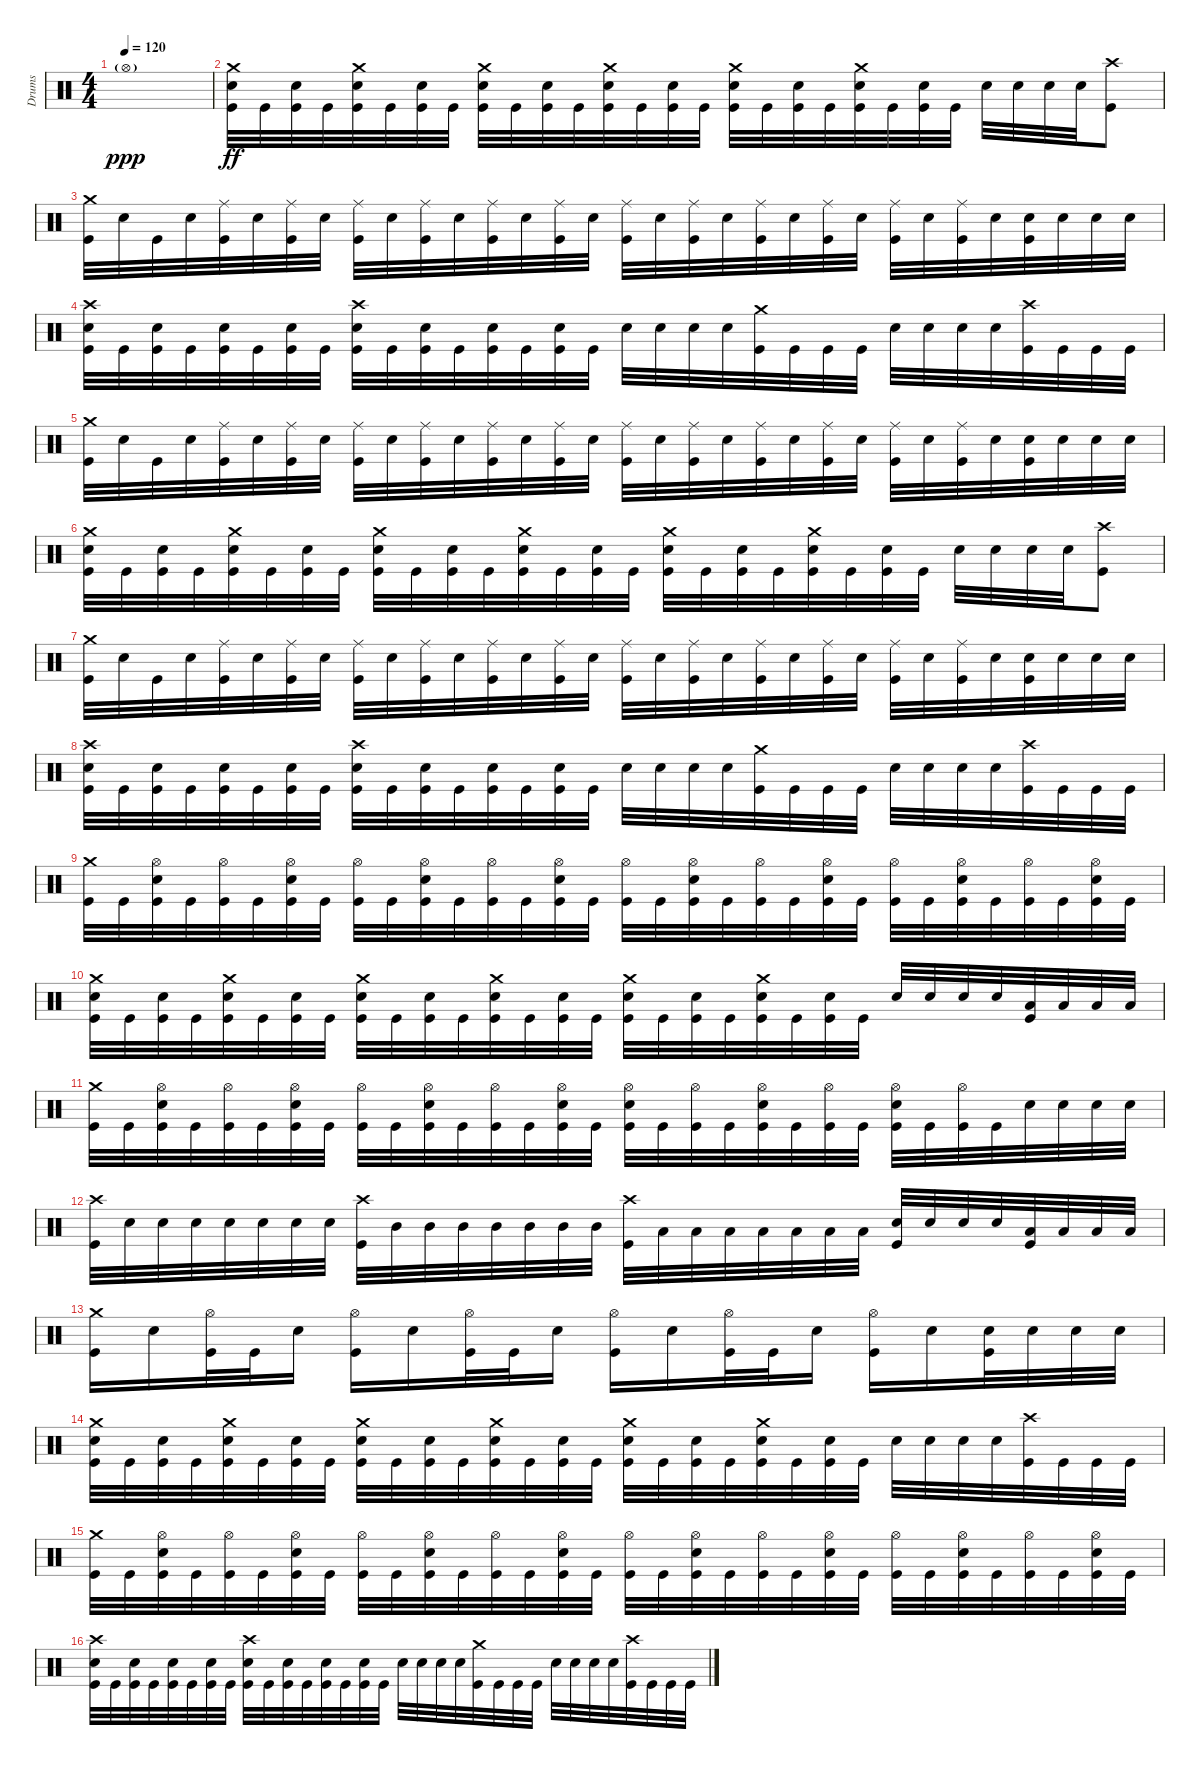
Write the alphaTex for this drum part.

\track ("Drums" "Drums") {instrument percussion}
\staff {score}
\articulation defaults
\ts (4 4)
\tempo 120
\clef neutral
\ks c "Hi-Hat (open)"{g}.1{dy ppp}
|
("Kick (hit)" "Snare (hit) 2" "Crash medium (hit)").32{dy ff} "Kick (hit)".32 ("Kick (hit)" "Snare (hit) 2").32 "Kick (hit)".32 ("Kick (hit)" "Snare (hit) 2" "Crash medium (hit)").32 "Kick (hit)".32 ("Kick (hit)" "Snare (hit) 2").32 "Kick (hit)".32 ("Kick (hit)" "Snare (hit) 2" "Crash medium (hit)").32 "Kick (hit)".32 ("Kick (hit)" "Snare (hit) 2").32 "Kick (hit)".32 ("Kick (hit)" "Snare (hit) 2" "Crash medium (hit)").32 "Kick (hit)".32 ("Kick (hit)" "Snare (hit) 2").32 "Kick (hit)".32 ("Kick (hit)" "Snare (hit) 2" "Crash medium (hit)").32 "Kick (hit)".32 ("Kick (hit)" "Snare (hit) 2").32 "Kick (hit)".32 ("Kick (hit)" "Snare (hit) 2" "Crash medium (hit)").32 "Kick (hit)".32 ("Kick (hit)" "Snare (hit) 2").32 "Kick (hit)".32 "Snare (hit) 2".32 "Snare (hit) 2".32 "Snare (hit) 2".32 "Snare (hit) 2".32 ("Kick (hit)" "Crash high (hit)").8 |
("Kick (hit)" "Crash medium (hit)").32 "Snare (hit) 2".32 "Kick (hit)".32 "Snare (hit) 2".32 ("Kick (hit)" "Ride (middle)").32 "Snare (hit) 2".32 ("Kick (hit)" "Ride (middle)").32 "Snare (hit) 2".32 ("Kick (hit)" "Ride (middle)").32 "Snare (hit) 2".32 ("Kick (hit)" "Ride (middle)").32 "Snare (hit) 2".32 ("Kick (hit)" "Ride (middle)").32 "Snare (hit) 2".32 ("Kick (hit)" "Ride (middle)").32 "Snare (hit) 2".32 ("Kick (hit)" "Ride (middle)").32 "Snare (hit) 2".32 ("Kick (hit)" "Ride (middle)").32 "Snare (hit) 2".32 ("Kick (hit)" "Ride (middle)").32 "Snare (hit) 2".32 ("Kick (hit)" "Ride (middle)").32 "Snare (hit) 2".32 ("Kick (hit)" "Ride (middle)").32 "Snare (hit) 2".32 ("Kick (hit)" "Ride (middle)").32 "Snare (hit) 2".32 ("Snare (hit) 2" "Kick (hit)").32 "Snare (hit) 2".32 "Snare (hit) 2".32 "Snare (hit) 2".32 |
("Kick (hit)" "Crash high (hit)" "Snare (hit) 2").32 "Kick (hit)".32 ("Kick (hit)" "Snare (hit) 2").32 "Kick (hit)".32 ("Kick (hit)" "Snare (hit) 2").32 "Kick (hit)".32 ("Kick (hit)" "Snare (hit) 2").32 "Kick (hit)".32 ("Kick (hit)" "Snare (hit) 2" "Crash high (hit)").32 "Kick (hit)".32 ("Kick (hit)" "Snare (hit) 2").32 "Kick (hit)".32 ("Kick (hit)" "Snare (hit) 2").32 "Kick (hit)".32 ("Kick (hit)" "Snare (hit) 2").32 "Kick (hit)".32 "Snare (hit) 2".32 "Snare (hit) 2".32 "Snare (hit) 2".32 "Snare (hit) 2".32 ("Kick (hit)" "Crash medium (hit)").32 "Kick (hit)".32 "Kick (hit)".32 "Kick (hit)".32 "Snare (hit) 2".32 "Snare (hit) 2".32 "Snare (hit) 2".32 "Snare (hit) 2".32 ("Kick (hit)" "Crash high (hit)").32 "Kick (hit)".32 "Kick (hit)".32 "Kick (hit)".32 |
("Kick (hit)" "Crash medium (hit)").32 "Snare (hit) 2".32 "Kick (hit)".32 "Snare (hit) 2".32 ("Kick (hit)" "Ride (middle)").32 "Snare (hit) 2".32 ("Kick (hit)" "Ride (middle)").32 "Snare (hit) 2".32 ("Kick (hit)" "Ride (middle)").32 "Snare (hit) 2".32 ("Kick (hit)" "Ride (middle)").32 "Snare (hit) 2".32 ("Kick (hit)" "Ride (middle)").32 "Snare (hit) 2".32 ("Kick (hit)" "Ride (middle)").32 "Snare (hit) 2".32 ("Kick (hit)" "Ride (middle)").32 "Snare (hit) 2".32 ("Kick (hit)" "Ride (middle)").32 "Snare (hit) 2".32 ("Kick (hit)" "Ride (middle)").32 "Snare (hit) 2".32 ("Kick (hit)" "Ride (middle)").32 "Snare (hit) 2".32 ("Kick (hit)" "Ride (middle)").32 "Snare (hit) 2".32 ("Kick (hit)" "Ride (middle)").32 "Snare (hit) 2".32 ("Snare (hit) 2" "Kick (hit)").32 "Snare (hit) 2".32 "Snare (hit) 2".32 "Snare (hit) 2".32 |
("Kick (hit)" "Snare (hit) 2" "Crash medium (hit)").32 "Kick (hit)".32 ("Kick (hit)" "Snare (hit) 2").32 "Kick (hit)".32 ("Kick (hit)" "Snare (hit) 2" "Crash medium (hit)").32 "Kick (hit)".32 ("Kick (hit)" "Snare (hit) 2").32 "Kick (hit)".32 ("Kick (hit)" "Snare (hit) 2" "Crash medium (hit)").32 "Kick (hit)".32 ("Kick (hit)" "Snare (hit) 2").32 "Kick (hit)".32 ("Kick (hit)" "Snare (hit) 2" "Crash medium (hit)").32 "Kick (hit)".32 ("Kick (hit)" "Snare (hit) 2").32 "Kick (hit)".32 ("Kick (hit)" "Snare (hit) 2" "Crash medium (hit)").32 "Kick (hit)".32 ("Kick (hit)" "Snare (hit) 2").32 "Kick (hit)".32 ("Kick (hit)" "Snare (hit) 2" "Crash medium (hit)").32 "Kick (hit)".32 ("Kick (hit)" "Snare (hit) 2").32 "Kick (hit)".32 "Snare (hit) 2".32 "Snare (hit) 2".32 "Snare (hit) 2".32 "Snare (hit) 2".32 ("Kick (hit)" "Crash high (hit)").8 |
("Kick (hit)" "Crash medium (hit)").32 "Snare (hit) 2".32 "Kick (hit)".32 "Snare (hit) 2".32 ("Kick (hit)" "Ride (middle)").32 "Snare (hit) 2".32 ("Kick (hit)" "Ride (middle)").32 "Snare (hit) 2".32 ("Kick (hit)" "Ride (middle)").32 "Snare (hit) 2".32 ("Kick (hit)" "Ride (middle)").32 "Snare (hit) 2".32 ("Kick (hit)" "Ride (middle)").32 "Snare (hit) 2".32 ("Kick (hit)" "Ride (middle)").32 "Snare (hit) 2".32 ("Kick (hit)" "Ride (middle)").32 "Snare (hit) 2".32 ("Kick (hit)" "Ride (middle)").32 "Snare (hit) 2".32 ("Kick (hit)" "Ride (middle)").32 "Snare (hit) 2".32 ("Kick (hit)" "Ride (middle)").32 "Snare (hit) 2".32 ("Kick (hit)" "Ride (middle)").32 "Snare (hit) 2".32 ("Kick (hit)" "Ride (middle)").32 "Snare (hit) 2".32 ("Snare (hit) 2" "Kick (hit)").32 "Snare (hit) 2".32 "Snare (hit) 2".32 "Snare (hit) 2".32 |
("Kick (hit)" "Crash high (hit)" "Snare (hit) 2").32 "Kick (hit)".32 ("Kick (hit)" "Snare (hit) 2").32 "Kick (hit)".32 ("Kick (hit)" "Snare (hit) 2").32 "Kick (hit)".32 ("Kick (hit)" "Snare (hit) 2").32 "Kick (hit)".32 ("Kick (hit)" "Snare (hit) 2" "Crash high (hit)").32 "Kick (hit)".32 ("Kick (hit)" "Snare (hit) 2").32 "Kick (hit)".32 ("Kick (hit)" "Snare (hit) 2").32 "Kick (hit)".32 ("Kick (hit)" "Snare (hit) 2").32 "Kick (hit)".32 "Snare (hit) 2".32 "Snare (hit) 2".32 "Snare (hit) 2".32 "Snare (hit) 2".32 ("Kick (hit)" "Crash medium (hit)").32 "Kick (hit)".32 "Kick (hit)".32 "Kick (hit)".32 "Snare (hit) 2".32 "Snare (hit) 2".32 "Snare (hit) 2".32 "Snare (hit) 2".32 ("Kick (hit)" "Crash high (hit)").32 "Kick (hit)".32 "Kick (hit)".32 "Kick (hit)".32 |
("Kick (hit)" "Crash medium (hit)").32 "Kick (hit)".32 ("Kick (hit)" "Snare (hit) 2" "Hi-Hat (open)").32 "Kick (hit)".32 ("Kick (hit)" "Hi-Hat (open)").32 "Kick (hit)".32 ("Kick (hit)" "Snare (hit) 2" "Hi-Hat (open)").32 "Kick (hit)".32 ("Kick (hit)" "Hi-Hat (open)").32 "Kick (hit)".32 ("Kick (hit)" "Snare (hit) 2" "Hi-Hat (open)").32 "Kick (hit)".32 ("Kick (hit)" "Hi-Hat (open)").32 "Kick (hit)".32 ("Kick (hit)" "Snare (hit) 2" "Hi-Hat (open)").32 "Kick (hit)".32 ("Kick (hit)" "Hi-Hat (open)").32 "Kick (hit)".32 ("Kick (hit)" "Snare (hit) 2" "Hi-Hat (open)").32 "Kick (hit)".32 ("Kick (hit)" "Hi-Hat (open)").32 "Kick (hit)".32 ("Kick (hit)" "Snare (hit) 2" "Hi-Hat (open)").32 "Kick (hit)".32 ("Kick (hit)" "Hi-Hat (open)").32 "Kick (hit)".32 ("Kick (hit)" "Snare (hit) 2" "Hi-Hat (open)").32 "Kick (hit)".32 ("Kick (hit)" "Hi-Hat (open)").32 "Kick (hit)".32 ("Kick (hit)" "Snare (hit) 2" "Hi-Hat (open)").32 "Kick (hit)".32 |
("Kick (hit)" "Snare (hit) 2" "Crash medium (hit)").32 "Kick (hit)".32 ("Kick (hit)" "Snare (hit) 2").32 "Kick (hit)".32 ("Kick (hit)" "Snare (hit) 2" "Crash medium (hit)").32 "Kick (hit)".32 ("Kick (hit)" "Snare (hit) 2").32 "Kick (hit)".32 ("Kick (hit)" "Snare (hit) 2" "Crash medium (hit)").32 "Kick (hit)".32 ("Kick (hit)" "Snare (hit) 2").32 "Kick (hit)".32 ("Kick (hit)" "Snare (hit) 2" "Crash medium (hit)").32 "Kick (hit)".32 ("Kick (hit)" "Snare (hit) 2").32 "Kick (hit)".32 ("Kick (hit)" "Snare (hit) 2" "Crash medium (hit)").32 "Kick (hit)".32 ("Kick (hit)" "Snare (hit) 2").32 "Kick (hit)".32 ("Kick (hit)" "Snare (hit) 2" "Crash medium (hit)").32 "Kick (hit)".32 ("Kick (hit)" "Snare (hit) 2").32 "Kick (hit)".32 "Snare (hit) 2".32 "Snare (hit) 2".32 "Snare (hit) 2".32 "Snare (hit) 2".32 ("Low Tom (hit)" "Kick (hit)").32 "Low Tom (hit)".32 "Low Tom (hit)".32 "Low Tom (hit)".32 |
("Kick (hit)" "Crash medium (hit)").32 "Kick (hit)".32 ("Kick (hit)" "Snare (hit) 2" "Hi-Hat (open)").32 "Kick (hit)".32 ("Kick (hit)" "Hi-Hat (open)").32 "Kick (hit)".32 ("Kick (hit)" "Snare (hit) 2" "Hi-Hat (open)").32 "Kick (hit)".32 ("Kick (hit)" "Hi-Hat (open)").32 "Kick (hit)".32 ("Kick (hit)" "Snare (hit) 2" "Hi-Hat (open)").32 "Kick (hit)".32 ("Kick (hit)" "Hi-Hat (open)").32 "Kick (hit)".32 ("Kick (hit)" "Snare (hit) 2" "Hi-Hat (open)").32 "Kick (hit)".32 ("Kick (hit)" "Hi-Hat (open)" "Snare (hit) 2").32 "Kick (hit)".32 ("Kick (hit)" "Hi-Hat (open)").32 "Kick (hit)".32 ("Kick (hit)" "Hi-Hat (open)" "Snare (hit) 2").32 "Kick (hit)".32 ("Kick (hit)" "Hi-Hat (open)").32 "Kick (hit)".32 ("Kick (hit)" "Hi-Hat (open)" "Snare (hit) 2").32 "Kick (hit)".32 ("Kick (hit)" "Hi-Hat (open)").32 "Kick (hit)".32 "Snare (hit) 2".32 "Snare (hit) 2".32 "Snare (hit) 2".32 "Snare (hit) 2".32 |
("Kick (hit)" "Crash high (hit)").32 "Snare (hit) 2".32 "Snare (hit) 2".32 "Snare (hit) 2".32 "Snare (hit) 2".32 "Snare (hit) 2".32 "Snare (hit) 2".32 "Snare (hit) 2".32 ("Kick (hit)" "Crash high (hit)").32 "Mid Tom (hit)".32 "Mid Tom (hit)".32 "Mid Tom (hit)".32 "Mid Tom (hit)".32 "Mid Tom (hit)".32 "Mid Tom (hit)".32 "Mid Tom (hit)".32 ("Kick (hit)" "Crash high (hit)").32 "Low Tom (hit)".32 "Low Tom (hit)".32 "Low Tom (hit)".32 "Low Tom (hit)".32 "Low Tom (hit)".32 "Low Tom (hit)".32 "Low Tom (hit)".32 ("Snare (hit) 2" "Kick (hit)").32 "Snare (hit) 2".32 "Snare (hit) 2".32 "Snare (hit) 2".32 ("Low Tom (hit)" "Kick (hit)").32 "Low Tom (hit)".32 "Low Tom (hit)".32 "Low Tom (hit)".32 |
("Kick (hit)" "Crash medium (hit)").16 "Snare (hit) 2".16 ("Kick (hit)" "Hi-Hat (open)").32 "Kick (hit)".32 "Snare (hit) 2".16 ("Kick (hit)" "Hi-Hat (open)").16 "Snare (hit) 2".16 ("Kick (hit)" "Hi-Hat (open)").32 "Kick (hit)".32 "Snare (hit) 2".16 ("Kick (hit)" "Hi-Hat (open)").16 "Snare (hit) 2".16 ("Kick (hit)" "Hi-Hat (open)").32 "Kick (hit)".32 "Snare (hit) 2".16 ("Kick (hit)" "Hi-Hat (open)").16 "Snare (hit) 2".16 ("Snare (hit) 2" "Kick (hit)").32 "Snare (hit) 2".32 "Snare (hit) 2".32 "Snare (hit) 2".32 |
("Kick (hit)" "Snare (hit) 2" "Crash medium (hit)").32 "Kick (hit)".32 ("Kick (hit)" "Snare (hit) 2").32 "Kick (hit)".32 ("Kick (hit)" "Snare (hit) 2" "Crash medium (hit)").32 "Kick (hit)".32 ("Kick (hit)" "Snare (hit) 2").32 "Kick (hit)".32 ("Kick (hit)" "Snare (hit) 2" "Crash medium (hit)").32 "Kick (hit)".32 ("Kick (hit)" "Snare (hit) 2").32 "Kick (hit)".32 ("Kick (hit)" "Snare (hit) 2" "Crash medium (hit)").32 "Kick (hit)".32 ("Kick (hit)" "Snare (hit) 2").32 "Kick (hit)".32 ("Kick (hit)" "Snare (hit) 2" "Crash medium (hit)").32 "Kick (hit)".32 ("Kick (hit)" "Snare (hit) 2").32 "Kick (hit)".32 ("Kick (hit)" "Snare (hit) 2" "Crash medium (hit)").32 "Kick (hit)".32 ("Kick (hit)" "Snare (hit) 2").32 "Kick (hit)".32 "Snare (hit) 2".32 "Snare (hit) 2".32 "Snare (hit) 2".32 "Snare (hit) 2".32 ("Crash high (hit)" "Kick (hit)").32 "Kick (hit)".32 "Kick (hit)".32 "Kick (hit)".32 |
("Kick (hit)" "Crash medium (hit)").32 "Kick (hit)".32 ("Kick (hit)" "Snare (hit) 2" "Hi-Hat (open)").32 "Kick (hit)".32 ("Kick (hit)" "Hi-Hat (open)").32 "Kick (hit)".32 ("Kick (hit)" "Snare (hit) 2" "Hi-Hat (open)").32 "Kick (hit)".32 ("Kick (hit)" "Hi-Hat (open)").32 "Kick (hit)".32 ("Kick (hit)" "Snare (hit) 2" "Hi-Hat (open)").32 "Kick (hit)".32 ("Kick (hit)" "Hi-Hat (open)").32 "Kick (hit)".32 ("Kick (hit)" "Snare (hit) 2" "Hi-Hat (open)").32 "Kick (hit)".32 ("Kick (hit)" "Hi-Hat (open)").32 "Kick (hit)".32 ("Kick (hit)" "Snare (hit) 2" "Hi-Hat (open)").32 "Kick (hit)".32 ("Kick (hit)" "Hi-Hat (open)").32 "Kick (hit)".32 ("Kick (hit)" "Snare (hit) 2" "Hi-Hat (open)").32 "Kick (hit)".32 ("Kick (hit)" "Hi-Hat (open)").32 "Kick (hit)".32 ("Kick (hit)" "Snare (hit) 2" "Hi-Hat (open)").32 "Kick (hit)".32 ("Kick (hit)" "Hi-Hat (open)").32 "Kick (hit)".32 ("Kick (hit)" "Snare (hit) 2" "Hi-Hat (open)").32 "Kick (hit)".32 |
("Kick (hit)" "Crash high (hit)" "Snare (hit) 2").32 "Kick (hit)".32 ("Kick (hit)" "Snare (hit) 2").32 "Kick (hit)".32 ("Kick (hit)" "Snare (hit) 2").32 "Kick (hit)".32 ("Kick (hit)" "Snare (hit) 2").32 "Kick (hit)".32 ("Kick (hit)" "Snare (hit) 2" "Crash high (hit)").32 "Kick (hit)".32 ("Kick (hit)" "Snare (hit) 2").32 "Kick (hit)".32 ("Kick (hit)" "Snare (hit) 2").32 "Kick (hit)".32 ("Kick (hit)" "Snare (hit) 2").32 "Kick (hit)".32 "Snare (hit) 2".32 "Snare (hit) 2".32 "Snare (hit) 2".32 "Snare (hit) 2".32 ("Kick (hit)" "Crash medium (hit)").32 "Kick (hit)".32 "Kick (hit)".32 "Kick (hit)".32 "Snare (hit) 2".32 "Snare (hit) 2".32 "Snare (hit) 2".32 "Snare (hit) 2".32 ("Kick (hit)" "Crash high (hit)").32 "Kick (hit)".32 "Kick (hit)".32 "Kick (hit)".32
